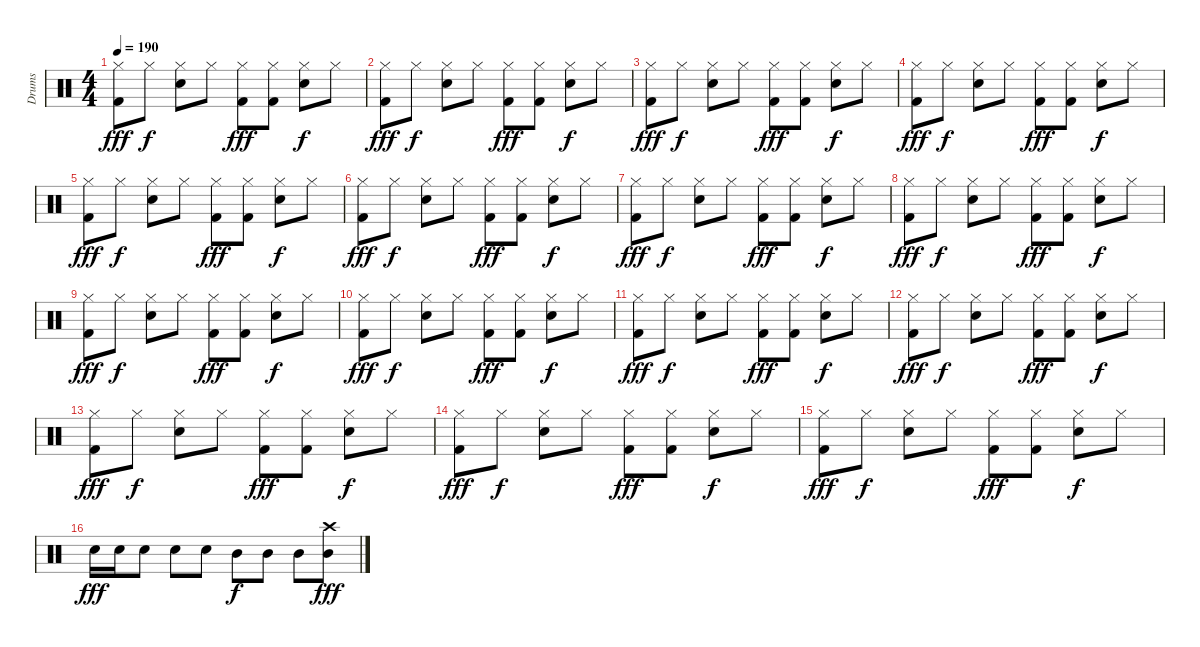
\track ("Drums" "Drums") {instrument percussion}
\staff {score}
\articulation defaults
\ts (4 4)
\tempo 190
\clef neutral
\ks c
("Hi-Hat (closed)" "Kick (hit) 2").8{dy fff} "Hi-Hat (closed)".8{dy f} ("Hi-Hat (closed)" "Electric Snare (hit)").8 "Hi-Hat (closed)".8 ("Hi-Hat (closed)" "Kick (hit) 2").8{dy fff} ("Hi-Hat (closed)" "Kick (hit) 2").8 ("Hi-Hat (closed)" "Electric Snare (hit)").8{dy f} "Hi-Hat (closed)".8 |
("Hi-Hat (closed)" "Kick (hit) 2").8{dy fff} "Hi-Hat (closed)".8{dy f} ("Hi-Hat (closed)" "Electric Snare (hit)").8 "Hi-Hat (closed)".8 ("Hi-Hat (closed)" "Kick (hit) 2").8{dy fff} ("Hi-Hat (closed)" "Kick (hit) 2").8 ("Hi-Hat (closed)" "Electric Snare (hit)").8{dy f} "Hi-Hat (closed)".8 |
("Hi-Hat (closed)" "Kick (hit) 2").8{dy fff} "Hi-Hat (closed)".8{dy f} ("Hi-Hat (closed)" "Electric Snare (hit)").8 "Hi-Hat (closed)".8 ("Hi-Hat (closed)" "Kick (hit) 2").8{dy fff} ("Hi-Hat (closed)" "Kick (hit) 2").8 ("Hi-Hat (closed)" "Electric Snare (hit)").8{dy f} "Hi-Hat (closed)".8 |
("Hi-Hat (closed)" "Kick (hit) 2").8{dy fff} "Hi-Hat (closed)".8{dy f} ("Hi-Hat (closed)" "Electric Snare (hit)").8 "Hi-Hat (closed)".8 ("Hi-Hat (closed)" "Kick (hit) 2").8{dy fff} ("Hi-Hat (closed)" "Kick (hit) 2").8 ("Hi-Hat (closed)" "Electric Snare (hit)").8{dy f} "Hi-Hat (closed)".8 |
("Hi-Hat (closed)" "Kick (hit) 2").8{dy fff} "Hi-Hat (closed)".8{dy f} ("Hi-Hat (closed)" "Electric Snare (hit)").8 "Hi-Hat (closed)".8 ("Hi-Hat (closed)" "Kick (hit) 2").8{dy fff} ("Hi-Hat (closed)" "Kick (hit) 2").8 ("Hi-Hat (closed)" "Electric Snare (hit)").8{dy f} "Hi-Hat (closed)".8 |
("Hi-Hat (closed)" "Kick (hit) 2").8{dy fff} "Hi-Hat (closed)".8{dy f} ("Hi-Hat (closed)" "Electric Snare (hit)").8 "Hi-Hat (closed)".8 ("Hi-Hat (closed)" "Kick (hit) 2").8{dy fff} ("Hi-Hat (closed)" "Kick (hit) 2").8 ("Hi-Hat (closed)" "Electric Snare (hit)").8{dy f} "Hi-Hat (closed)".8 |
("Hi-Hat (closed)" "Kick (hit) 2").8{dy fff} "Hi-Hat (closed)".8{dy f} ("Hi-Hat (closed)" "Electric Snare (hit)").8 "Hi-Hat (closed)".8 ("Hi-Hat (closed)" "Kick (hit) 2").8{dy fff} ("Hi-Hat (closed)" "Kick (hit) 2").8 ("Hi-Hat (closed)" "Electric Snare (hit)").8{dy f} "Hi-Hat (closed)".8 |
("Hi-Hat (closed)" "Kick (hit) 2").8{dy fff} "Hi-Hat (closed)".8{dy f} ("Hi-Hat (closed)" "Electric Snare (hit)").8 "Hi-Hat (closed)".8 ("Hi-Hat (closed)" "Kick (hit) 2").8{dy fff} ("Hi-Hat (closed)" "Kick (hit) 2").8 ("Hi-Hat (closed)" "Electric Snare (hit)").8{dy f} "Hi-Hat (closed)".8 |
("Hi-Hat (closed)" "Kick (hit) 2").8{dy fff} "Hi-Hat (closed)".8{dy f} ("Hi-Hat (closed)" "Electric Snare (hit)").8 "Hi-Hat (closed)".8 ("Hi-Hat (closed)" "Kick (hit) 2").8{dy fff} ("Hi-Hat (closed)" "Kick (hit) 2").8 ("Hi-Hat (closed)" "Electric Snare (hit)").8{dy f} "Hi-Hat (closed)".8 |
("Hi-Hat (closed)" "Kick (hit) 2").8{dy fff} "Hi-Hat (closed)".8{dy f} ("Hi-Hat (closed)" "Electric Snare (hit)").8 "Hi-Hat (closed)".8 ("Hi-Hat (closed)" "Kick (hit) 2").8{dy fff} ("Hi-Hat (closed)" "Kick (hit) 2").8 ("Hi-Hat (closed)" "Electric Snare (hit)").8{dy f} "Hi-Hat (closed)".8 |
("Hi-Hat (closed)" "Kick (hit) 2").8{dy fff} "Hi-Hat (closed)".8{dy f} ("Hi-Hat (closed)" "Electric Snare (hit)").8 "Hi-Hat (closed)".8 ("Hi-Hat (closed)" "Kick (hit) 2").8{dy fff} ("Hi-Hat (closed)" "Kick (hit) 2").8 ("Hi-Hat (closed)" "Electric Snare (hit)").8{dy f} "Hi-Hat (closed)".8 |
("Hi-Hat (closed)" "Kick (hit) 2").8{dy fff} "Hi-Hat (closed)".8{dy f} ("Hi-Hat (closed)" "Electric Snare (hit)").8 "Hi-Hat (closed)".8 ("Hi-Hat (closed)" "Kick (hit) 2").8{dy fff} ("Hi-Hat (closed)" "Kick (hit) 2").8 ("Hi-Hat (closed)" "Electric Snare (hit)").8{dy f} "Hi-Hat (closed)".8 |
("Hi-Hat (closed)" "Kick (hit) 2").8{dy fff} "Hi-Hat (closed)".8{dy f} ("Hi-Hat (closed)" "Electric Snare (hit)").8 "Hi-Hat (closed)".8 ("Hi-Hat (closed)" "Kick (hit) 2").8{dy fff} ("Hi-Hat (closed)" "Kick (hit) 2").8 ("Hi-Hat (closed)" "Electric Snare (hit)").8{dy f} "Hi-Hat (closed)".8 |
("Hi-Hat (closed)" "Kick (hit) 2").8{dy fff} "Hi-Hat (closed)".8{dy f} ("Hi-Hat (closed)" "Electric Snare (hit)").8 "Hi-Hat (closed)".8 ("Hi-Hat (closed)" "Kick (hit) 2").8{dy fff} ("Hi-Hat (closed)" "Kick (hit) 2").8 ("Hi-Hat (closed)" "Electric Snare (hit)").8{dy f} "Hi-Hat (closed)".8 |
("Hi-Hat (closed)" "Kick (hit) 2").8{dy fff} "Hi-Hat (closed)".8{dy f} ("Hi-Hat (closed)" "Electric Snare (hit)").8 "Hi-Hat (closed)".8 ("Hi-Hat (closed)" "Kick (hit) 2").8{dy fff} ("Hi-Hat (closed)" "Kick (hit) 2").8 ("Hi-Hat (closed)" "Electric Snare (hit)").8{dy f} "Hi-Hat (closed)".8 |
"Electric Snare (hit)".16{dy fff} "Electric Snare (hit)".16 "Electric Snare (hit)".8 "Electric Snare (hit)".8 "Electric Snare (hit)".8 "Mid Tom (hit)".8{dy f} "Mid Tom (hit)".8 "Mid Tom (hit)".8 ("Crash high (hit)" "Mid Tom (hit)").8{dy fff}
